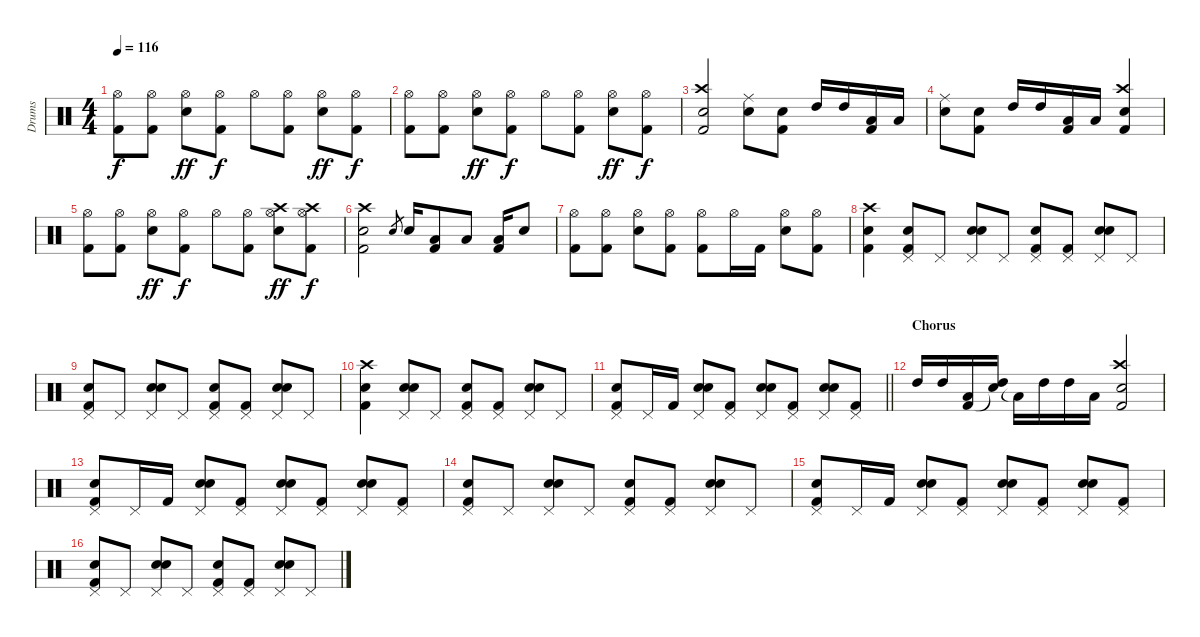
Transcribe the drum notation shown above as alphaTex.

\track ("Drums" "Drums") {instrument percussion}
\staff {score}
\articulation defaults
\ts (4 4)
\tempo 116
\clef neutral
\ks c
("Hi-Hat (open)" "Kick (hit) 2").8{dy f} ("Hi-Hat (open)" "Kick (hit) 2").8 ("Hi-Hat (open)" "Snare (hit) 2").8{dy ff} ("Hi-Hat (open)" "Kick (hit) 2").8{dy f} "Hi-Hat (open)".8 ("Hi-Hat (open)" "Kick (hit) 2").8 ("Hi-Hat (open)" "Snare (hit) 2").8{dy ff} ("Hi-Hat (open)" "Kick (hit) 2").8{dy f} |
("Hi-Hat (open)" "Kick (hit) 2").8 ("Hi-Hat (open)" "Kick (hit) 2").8 ("Hi-Hat (open)" "Snare (hit) 2").8{dy ff} ("Hi-Hat (open)" "Kick (hit) 2").8{dy f} "Hi-Hat (open)".8 ("Hi-Hat (open)" "Kick (hit) 2").8 ("Hi-Hat (open)" "Snare (hit) 2").8{dy ff} ("Hi-Hat (open)" "Kick (hit) 2").8{dy f} |
("Crash high (hit)" "Electric Snare (hit)" "Kick (hit) 2").2 ("Ride (middle)" "Snare (hit) 2").8 ("Snare (hit) 2" "Kick (hit) 2").8 "High Tom (hit)".16 "High Tom (hit)".16 ("Low Tom (hit)" "Kick (hit) 2").16 "Low Tom (hit)".16 |
("Ride (middle)" "Snare (hit) 2").8 ("Snare (hit) 2" "Kick (hit) 2").8 "High Tom (hit)".16 "High Tom (hit)".16 ("Low Tom (hit)" "Kick (hit) 2").16 "Low Tom (hit)".16 ("Crash high (hit)" "Electric Snare (hit)" "Kick (hit) 2").4 |
("Hi-Hat (open)" "Kick (hit) 2").8 ("Hi-Hat (open)" "Kick (hit) 2").8 ("Hi-Hat (open)" "Snare (hit) 2").8{dy ff} ("Hi-Hat (open)" "Kick (hit) 2").8{dy f} "Hi-Hat (open)".8 ("Hi-Hat (open)" "Kick (hit) 2").8 ("Crash high (hit)" "Hi-Hat (open)" "Snare (hit) 2").8{dy ff} ("Crash high (hit)" "Hi-Hat (open)" "Kick (hit) 2").8{dy f} |
("Crash high (hit)" "Snare (hit) 2" "Kick (hit) 2").2 "Snare (hit) 2".8{gr} "Snare (hit) 2".16 ("Low Tom (hit)" "Kick (hit) 2").8 "Low Tom (hit)".8 ("Low Tom (hit)" "Kick (hit) 2").16 "Snare (hit) 2".8 |
("Hi-Hat (open)" "Kick (hit) 2").8 ("Hi-Hat (open)" "Kick (hit) 2").8 ("Hi-Hat (open)" "Snare (hit) 2").8 ("Hi-Hat (open)" "Kick (hit) 2").8 ("Hi-Hat (open)" "Kick (hit) 2").8 "Hi-Hat (open)".16 "Kick (hit) 2".16 ("Hi-Hat (open)" "Snare (hit) 2").8 ("Hi-Hat (open)" "Kick (hit) 2").8 |
("Crash high (hit)" "Snare (hit) 2" "Kick (hit) 2").4 ("Hand Clap (hit)" "Pedal Hi-Hat (hit)" "Kick (hit) 2").8{volume 16} "Pedal Hi-Hat (hit)".8 ("Hand Clap (hit)" "Pedal Hi-Hat (hit)" "Snare (hit) 2").8 "Pedal Hi-Hat (hit)".8 ("Hand Clap (hit)" "Pedal Hi-Hat (hit)" "Kick (hit) 2").8 ("Pedal Hi-Hat (hit)" "Kick (hit) 2").8 ("Hand Clap (hit)" "Pedal Hi-Hat (hit)" "Snare (hit) 2").8 "Pedal Hi-Hat (hit)".8 |
("Hand Clap (hit)" "Pedal Hi-Hat (hit)" "Kick (hit) 2").8 "Pedal Hi-Hat (hit)".8 ("Hand Clap (hit)" "Pedal Hi-Hat (hit)" "Snare (hit) 2").8 "Pedal Hi-Hat (hit)".8 ("Hand Clap (hit)" "Pedal Hi-Hat (hit)" "Kick (hit) 2").8 ("Pedal Hi-Hat (hit)" "Kick (hit) 2").8 ("Hand Clap (hit)" "Pedal Hi-Hat (hit)" "Snare (hit) 2").8 "Pedal Hi-Hat (hit)".8 |
("Crash high (hit)" "Snare (hit) 2" "Kick (hit) 2").4 ("Hand Clap (hit)" "Pedal Hi-Hat (hit)" "Snare (hit) 2").8 "Pedal Hi-Hat (hit)".8 ("Hand Clap (hit)" "Pedal Hi-Hat (hit)" "Kick (hit) 2").8 ("Pedal Hi-Hat (hit)" "Kick (hit) 2").8 ("Hand Clap (hit)" "Pedal Hi-Hat (hit)" "Snare (hit) 2").8 "Pedal Hi-Hat (hit)".8 |
\barLineRight lightlight
("Hand Clap (hit)" "Pedal Hi-Hat (hit)" "Kick (hit) 2").8 "Pedal Hi-Hat (hit)".16 "Kick (hit) 2".16 ("Hand Clap (hit)" "Pedal Hi-Hat (hit)" "Snare (hit) 2").8 ("Pedal Hi-Hat (hit)" "Kick (hit) 2").8 ("Hand Clap (hit)" "Pedal Hi-Hat (hit)" "Snare (hit) 2").8 ("Pedal Hi-Hat (hit)" "Kick (hit) 2").8 ("Hand Clap (hit)" "Pedal Hi-Hat (hit)" "Snare (hit) 2").8 ("Pedal Hi-Hat (hit)" "Kick (hit) 2").8 |
\section ("" "Chorus")
"High Tom (hit)".16 "High Tom (hit)".16{volume 16} ("Low Tom (hit)" "Kick (hit) 2").16 ("High Tom (hit)" "Snare (hit)"{t}).16 "Low Tom (hit)"{t}.16 "High Tom (hit)".16 "High Tom (hit)".16 "Low Tom (hit)".16 ("Crash high (hit)" "Electric Snare (hit)" "Kick (hit) 2").2 |
("Hand Clap (hit)" "Pedal Hi-Hat (hit)" "Kick (hit) 2").8 "Pedal Hi-Hat (hit)".16 "Kick (hit) 2".16 ("Hand Clap (hit)" "Pedal Hi-Hat (hit)" "Snare (hit) 2").8 ("Pedal Hi-Hat (hit)" "Kick (hit) 2").8 ("Hand Clap (hit)" "Pedal Hi-Hat (hit)" "Snare (hit) 2").8 ("Pedal Hi-Hat (hit)" "Kick (hit) 2").8 ("Hand Clap (hit)" "Pedal Hi-Hat (hit)" "Snare (hit) 2").8 ("Pedal Hi-Hat (hit)" "Kick (hit) 2").8 |
("Hand Clap (hit)" "Pedal Hi-Hat (hit)" "Kick (hit) 2").8 "Pedal Hi-Hat (hit)".8 ("Hand Clap (hit)" "Pedal Hi-Hat (hit)" "Snare (hit) 2").8 "Pedal Hi-Hat (hit)".8 ("Hand Clap (hit)" "Pedal Hi-Hat (hit)" "Kick (hit) 2").8 ("Pedal Hi-Hat (hit)" "Kick (hit) 2").8 ("Hand Clap (hit)" "Pedal Hi-Hat (hit)" "Snare (hit) 2").8 "Pedal Hi-Hat (hit)".8 |
("Hand Clap (hit)" "Pedal Hi-Hat (hit)" "Kick (hit) 2").8 "Pedal Hi-Hat (hit)".16 "Kick (hit) 2".16 ("Hand Clap (hit)" "Pedal Hi-Hat (hit)" "Snare (hit) 2").8 ("Pedal Hi-Hat (hit)" "Kick (hit) 2").8 ("Hand Clap (hit)" "Pedal Hi-Hat (hit)" "Snare (hit) 2").8 ("Pedal Hi-Hat (hit)" "Kick (hit) 2").8 ("Hand Clap (hit)" "Pedal Hi-Hat (hit)" "Snare (hit) 2").8 ("Pedal Hi-Hat (hit)" "Kick (hit) 2").8 |
("Hand Clap (hit)" "Pedal Hi-Hat (hit)" "Kick (hit) 2").8 "Pedal Hi-Hat (hit)".8{volume 16} ("Hand Clap (hit)" "Pedal Hi-Hat (hit)" "Snare (hit) 2").8 "Pedal Hi-Hat (hit)".8 ("Hand Clap (hit)" "Pedal Hi-Hat (hit)" "Kick (hit) 2").8 ("Pedal Hi-Hat (hit)" "Kick (hit) 2").8 ("Hand Clap (hit)" "Pedal Hi-Hat (hit)" "Snare (hit) 2").8 "Pedal Hi-Hat (hit)".8
